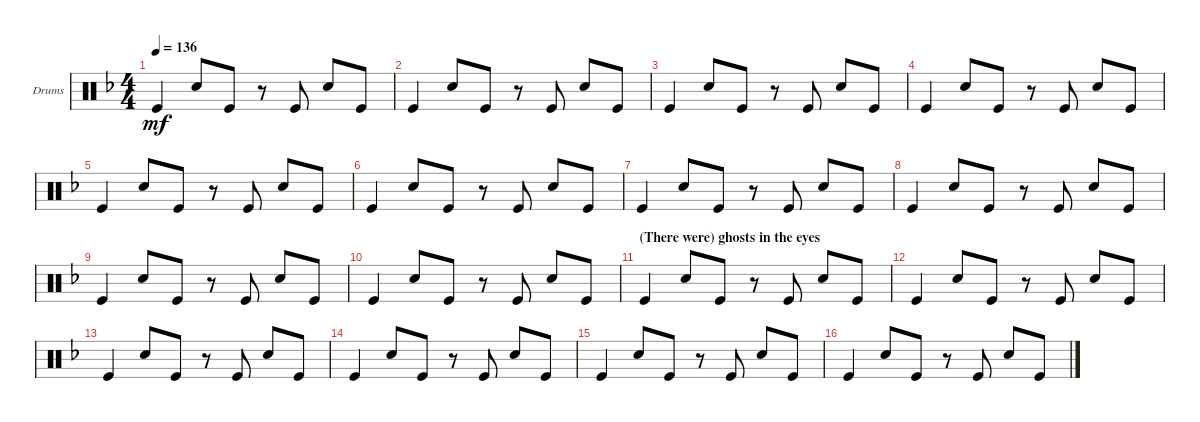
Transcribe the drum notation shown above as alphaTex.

\bracketExtendMode groupsimilarinstruments
\firstSystemTrackNameOrientation horizontal
\otherSystemsTrackNameOrientation horizontal
\track ("Drumkit" "Drums") {instrument percussion}
\staff {score}
\articulation defaults
\ts (4 4)
\tempo 136
\clef neutral
\scale
0.333333
\ks f "Kick (hit)".4{dy mf} "Snare (hit) 2".8 "Kick (hit)".8
r.8 "Kick (hit)".8 "Snare (hit) 2".8 "Kick (hit)".8 |
\scale
0.333333 "Kick (hit)".4 "Snare (hit) 2".8 "Kick (hit)".8 r.8 "Kick (hit)".8 "Snare (hit) 2".8 "Kick (hit)".8 |
\scale
0.333333 "Kick (hit)".4 "Snare (hit) 2".8 "Kick (hit)".8 r.8 "Kick (hit)".8 "Snare (hit) 2".8 "Kick (hit)".8 |
\scale
0.333333 "Kick (hit)".4 "Snare (hit) 2".8 "Kick (hit)".8 r.8 "Kick (hit)".8 "Snare (hit) 2".8 "Kick (hit)".8 |
\scale
0.333333 "Kick (hit)".4 "Snare (hit) 2".8 "Kick (hit)".8 r.8 "Kick (hit)".8 "Snare (hit) 2".8 "Kick (hit)".8 |
\scale
0.333333 "Kick (hit)".4 "Snare (hit) 2".8 "Kick (hit)".8 r.8 "Kick (hit)".8 "Snare (hit) 2".8 "Kick (hit)".8 |
\scale
0.333333 "Kick (hit)".4 "Snare (hit) 2".8 "Kick (hit)".8 r.8 "Kick (hit)".8 "Snare (hit) 2".8 "Kick (hit)".8 |
\scale
0.333333 "Kick (hit)".4 "Snare (hit) 2".8 "Kick (hit)".8 r.8 "Kick (hit)".8 "Snare (hit) 2".8 "Kick (hit)".8 |
\scale
0.333333 "Kick (hit)".4 "Snare (hit) 2".8 "Kick (hit)".8 r.8 "Kick (hit)".8 "Snare (hit) 2".8 "Kick (hit)".8 |
\scale
0.333333 "Kick (hit)".4 "Snare (hit) 2".8 "Kick (hit)".8 r.8 "Kick (hit)".8 "Snare (hit) 2".8 "Kick (hit)".8 |
\section ("" "(There were) ghosts in the eyes")
\scale
0.333333 "Kick (hit)".4 "Snare (hit) 2".8 "Kick (hit)".8 r.8 "Kick (hit)".8 "Snare (hit) 2".8 "Kick (hit)".8 |
\scale
0.333333 "Kick (hit)".4 "Snare (hit) 2".8 "Kick (hit)".8 r.8 "Kick (hit)".8 "Snare (hit) 2".8 "Kick (hit)".8 |
\scale
0.333333 "Kick (hit)".4 "Snare (hit) 2".8 "Kick (hit)".8 r.8 "Kick (hit)".8 "Snare (hit) 2".8 "Kick (hit)".8 |
\scale
0.333333 "Kick (hit)".4 "Snare (hit) 2".8 "Kick (hit)".8 r.8 "Kick (hit)".8 "Snare (hit) 2".8 "Kick (hit)".8 |
\scale
0.333333 "Kick (hit)".4 "Snare (hit) 2".8 "Kick (hit)".8 r.8 "Kick (hit)".8 "Snare (hit) 2".8 "Kick (hit)".8 |
\scale
0.333333 "Kick (hit)".4 "Snare (hit) 2".8 "Kick (hit)".8 r.8 "Kick (hit)".8 "Snare (hit) 2".8 "Kick (hit)".8
